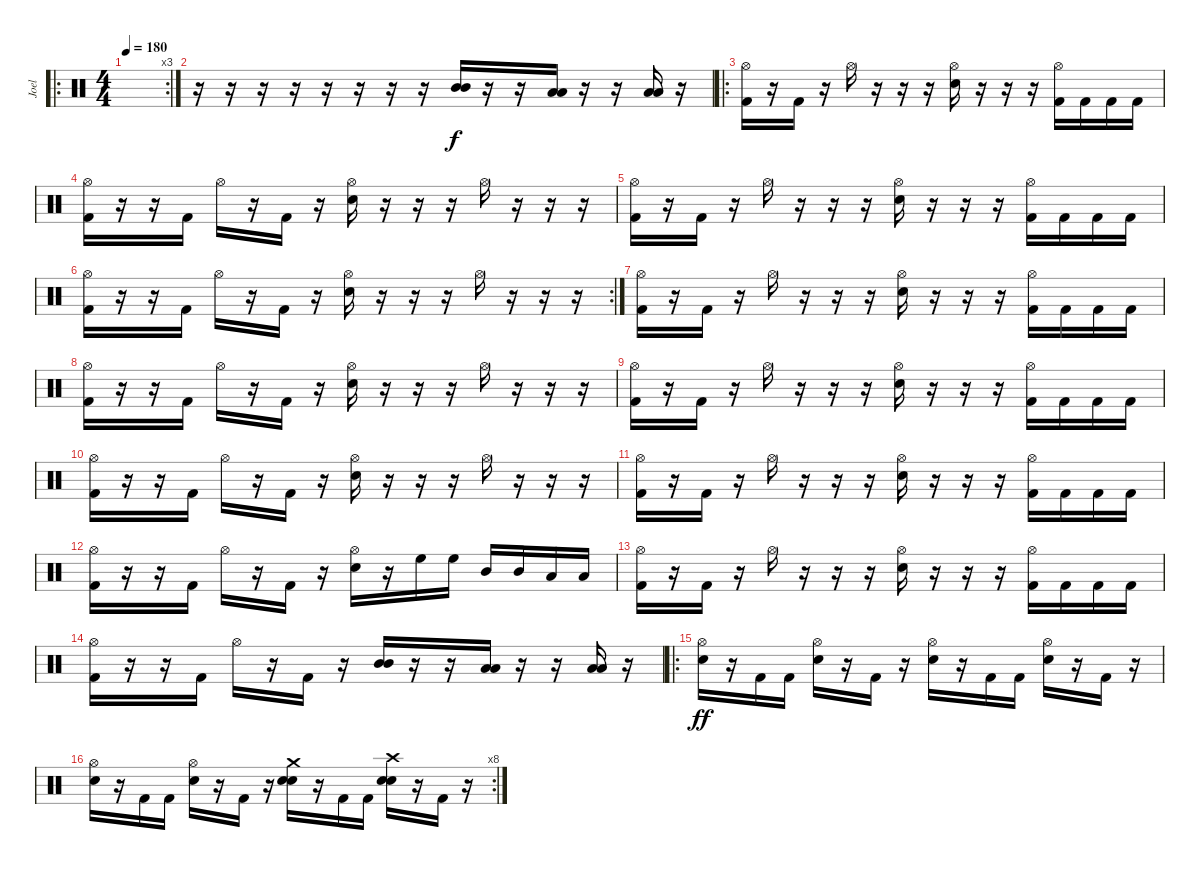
\track ("Joel" "Joel") {instrument percussion}
\staff {score}
\articulation defaults
\ro
\rc 3
\ts (4 4)
\tempo 180
\clef neutral
\ks c
|
r.16 r.16 r.16 r.16 r.16 r.16 r.16 r.16 ("Mid Tom (hit)" "Mid Tom (hit)").16 r.16 r.16 ("Low Tom (hit)" "Low Tom (hit)").16 r.16 r.16 ("Low Floor Tom (hit)" "Low Floor Tom (hit)").16 r.16 |
\ro
("Hi-Hat (open)" "Kick (hit) 2").16{dy f} r.16 "Kick (hit) 2".16 r.16 "Hi-Hat (open)".16 r.16 r.16 r.16 ("Hi-Hat (open)" "Electric Snare (hit)").16 r.16 r.16 r.16 ("Hi-Hat (open)" "Kick (hit) 2").16 "Kick (hit) 2".16 "Kick (hit) 2".16 "Kick (hit) 2".16 |
("Hi-Hat (open)" "Kick (hit) 2").16 r.16 r.16 "Kick (hit) 2".16 "Hi-Hat (open)".16 r.16 "Kick (hit) 2".16 r.16 ("Hi-Hat (open)" "Electric Snare (hit)").16 r.16 r.16 r.16 "Hi-Hat (open)".16 r.16 r.16 r.16 |
("Hi-Hat (open)" "Kick (hit) 2").16 r.16 "Kick (hit) 2".16 r.16 "Hi-Hat (open)".16 r.16 r.16 r.16 ("Hi-Hat (open)" "Electric Snare (hit)").16 r.16 r.16 r.16 ("Hi-Hat (open)" "Kick (hit) 2").16 "Kick (hit) 2".16 "Kick (hit) 2".16 "Kick (hit) 2".16 |
\rc 2
("Hi-Hat (open)" "Kick (hit) 2").16 r.16 r.16 "Kick (hit) 2".16 "Hi-Hat (open)".16 r.16 "Kick (hit) 2".16 r.16 ("Hi-Hat (open)" "Electric Snare (hit)").16 r.16 r.16 r.16 "Hi-Hat (open)".16 r.16 r.16 r.16 |
("Hi-Hat (open)" "Kick (hit) 2").16 r.16 "Kick (hit) 2".16 r.16 "Hi-Hat (open)".16 r.16 r.16 r.16 ("Hi-Hat (open)" "Electric Snare (hit)").16 r.16 r.16 r.16 ("Hi-Hat (open)" "Kick (hit) 2").16 "Kick (hit) 2".16 "Kick (hit) 2".16 "Kick (hit) 2".16 |
("Hi-Hat (open)" "Kick (hit) 2").16 r.16 r.16 "Kick (hit) 2".16 "Hi-Hat (open)".16 r.16 "Kick (hit) 2".16 r.16 ("Hi-Hat (open)" "Electric Snare (hit)").16 r.16 r.16 r.16 "Hi-Hat (open)".16 r.16 r.16 r.16 |
("Hi-Hat (open)" "Kick (hit) 2").16 r.16 "Kick (hit) 2".16 r.16 "Hi-Hat (open)".16 r.16 r.16 r.16 ("Hi-Hat (open)" "Electric Snare (hit)").16 r.16 r.16 r.16 ("Hi-Hat (open)" "Kick (hit) 2").16 "Kick (hit) 2".16 "Kick (hit) 2".16 "Kick (hit) 2".16 |
("Hi-Hat (open)" "Kick (hit) 2").16 r.16 r.16 "Kick (hit) 2".16 "Hi-Hat (open)".16 r.16 "Kick (hit) 2".16 r.16 ("Hi-Hat (open)" "Electric Snare (hit)").16 r.16 r.16 r.16 "Hi-Hat (open)".16 r.16 r.16 r.16 |
("Hi-Hat (open)" "Kick (hit) 2").16 r.16 "Kick (hit) 2".16 r.16 "Hi-Hat (open)".16 r.16 r.16 r.16 ("Hi-Hat (open)" "Electric Snare (hit)").16 r.16 r.16 r.16 ("Hi-Hat (open)" "Kick (hit) 2").16 "Kick (hit) 2".16 "Kick (hit) 2".16 "Kick (hit) 2".16 |
("Hi-Hat (open)" "Kick (hit) 2").16 r.16 r.16 "Kick (hit) 2".16 "Hi-Hat (open)".16 r.16 "Kick (hit) 2".16 r.16 ("Hi-Hat (open)" "Electric Snare (hit)").16 r.16 "High Floor Tom (hit)".16 "High Floor Tom (hit)".16 "Mid Tom (hit)".16 "Mid Tom (hit)".16 "Low Tom (hit)".16 "Low Tom (hit)".16 |
("Hi-Hat (open)" "Kick (hit) 2").16 r.16 "Kick (hit) 2".16 r.16 "Hi-Hat (open)".16 r.16 r.16 r.16 ("Hi-Hat (open)" "Electric Snare (hit)").16 r.16 r.16 r.16 ("Hi-Hat (open)" "Kick (hit) 2").16 "Kick (hit) 2".16 "Kick (hit) 2".16 "Kick (hit) 2".16 |
("Hi-Hat (open)" "Kick (hit) 2").16 r.16 r.16 "Kick (hit) 2".16 "Hi-Hat (open)".16 r.16 "Kick (hit) 2".16 r.16 ("Mid Tom (hit)" "Mid Tom (hit)").16 r.16 r.16 ("Low Tom (hit)" "Low Tom (hit)").16 r.16 r.16 ("Low Floor Tom (hit)" "Low Floor Tom (hit)").16 r.16 |
\ro
("Hi-Hat (open)" "Electric Snare (hit)").16{dy ff} r.16 "Kick (hit) 2".16 "Kick (hit) 2".16 ("Hi-Hat (open)" "Electric Snare (hit)").16 r.16 "Kick (hit) 2".16 r.16 ("Hi-Hat (open)" "Electric Snare (hit)").16 r.16 "Kick (hit) 2".16 "Kick (hit) 2".16 ("Hi-Hat (open)" "Electric Snare (hit)").16 r.16 "Kick (hit) 2".16 r.16 |
\rc 8
("Hi-Hat (open)" "Electric Snare (hit)").16 r.16 "Kick (hit) 2".16 "Kick (hit) 2".16 ("Hi-Hat (open)" "Electric Snare (hit)").16 r.16 "Kick (hit) 2".16 r.16 ("Snare (hit)" "Crash medium (hit)" "Electric Snare (hit)").16 r.16 "Kick (hit) 2".16 "Kick (hit) 2".16 ("Snare (hit)" "Crash high (hit)" "Electric Snare (hit)").16 r.16 "Kick (hit) 2".16 r.16
